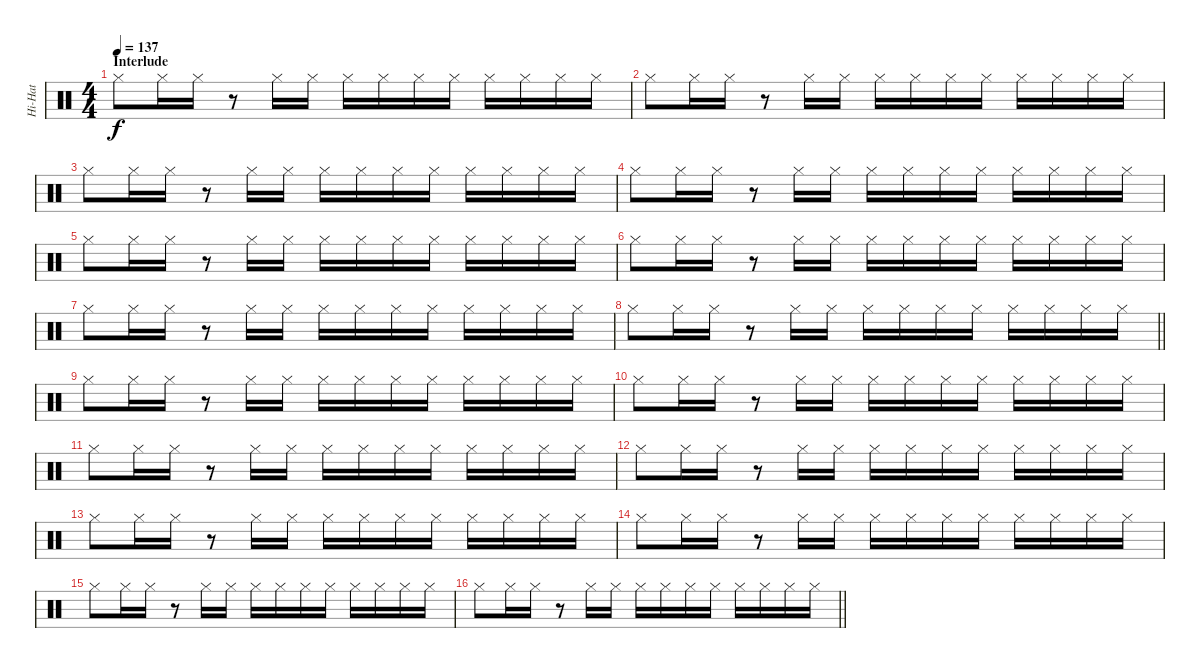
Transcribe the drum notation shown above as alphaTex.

\track ("Hi-Hat" "Hi-Hat") {instrument percussion}
\staff {score}
\articulation defaults
\ts (4 4)
\section ("" "Interlude")
\tempo 137
\clef neutral
\ks c "Hi-Hat (closed)".8{dy f} "Hi-Hat (closed)".16 "Hi-Hat (closed)".16
r.8 "Hi-Hat (closed)".16 "Hi-Hat (closed)".16 "Hi-Hat (closed)".16 "Hi-Hat (closed)".16 "Hi-Hat (closed)".16 "Hi-Hat (closed)".16 "Hi-Hat (closed)".16 "Hi-Hat (closed)".16 "Hi-Hat (closed)".16 "Hi-Hat (closed)".16 |
"Hi-Hat (closed)".8 "Hi-Hat (closed)".16 "Hi-Hat (closed)".16 r.8 "Hi-Hat (closed)".16 "Hi-Hat (closed)".16 "Hi-Hat (closed)".16 "Hi-Hat (closed)".16 "Hi-Hat (closed)".16 "Hi-Hat (closed)".16 "Hi-Hat (closed)".16 "Hi-Hat (closed)".16 "Hi-Hat (closed)".16 "Hi-Hat (closed)".16 |
"Hi-Hat (closed)".8 "Hi-Hat (closed)".16 "Hi-Hat (closed)".16 r.8 "Hi-Hat (closed)".16 "Hi-Hat (closed)".16 "Hi-Hat (closed)".16 "Hi-Hat (closed)".16 "Hi-Hat (closed)".16 "Hi-Hat (closed)".16 "Hi-Hat (closed)".16 "Hi-Hat (closed)".16 "Hi-Hat (closed)".16 "Hi-Hat (closed)".16 |
"Hi-Hat (closed)".8 "Hi-Hat (closed)".16 "Hi-Hat (closed)".16 r.8 "Hi-Hat (closed)".16 "Hi-Hat (closed)".16 "Hi-Hat (closed)".16 "Hi-Hat (closed)".16 "Hi-Hat (closed)".16 "Hi-Hat (closed)".16 "Hi-Hat (closed)".16 "Hi-Hat (closed)".16 "Hi-Hat (closed)".16 "Hi-Hat (closed)".16 |
"Hi-Hat (closed)".8 "Hi-Hat (closed)".16 "Hi-Hat (closed)".16 r.8 "Hi-Hat (closed)".16 "Hi-Hat (closed)".16 "Hi-Hat (closed)".16 "Hi-Hat (closed)".16 "Hi-Hat (closed)".16 "Hi-Hat (closed)".16 "Hi-Hat (closed)".16 "Hi-Hat (closed)".16 "Hi-Hat (closed)".16 "Hi-Hat (closed)".16 |
"Hi-Hat (closed)".8 "Hi-Hat (closed)".16 "Hi-Hat (closed)".16 r.8 "Hi-Hat (closed)".16 "Hi-Hat (closed)".16 "Hi-Hat (closed)".16 "Hi-Hat (closed)".16 "Hi-Hat (closed)".16 "Hi-Hat (closed)".16 "Hi-Hat (closed)".16 "Hi-Hat (closed)".16 "Hi-Hat (closed)".16 "Hi-Hat (closed)".16 |
"Hi-Hat (closed)".8 "Hi-Hat (closed)".16 "Hi-Hat (closed)".16 r.8 "Hi-Hat (closed)".16 "Hi-Hat (closed)".16 "Hi-Hat (closed)".16 "Hi-Hat (closed)".16 "Hi-Hat (closed)".16 "Hi-Hat (closed)".16 "Hi-Hat (closed)".16 "Hi-Hat (closed)".16 "Hi-Hat (closed)".16 "Hi-Hat (closed)".16 |
\barLineRight lightlight "Hi-Hat (closed)".8 "Hi-Hat (closed)".16 "Hi-Hat (closed)".16
r.8 "Hi-Hat (closed)".16 "Hi-Hat (closed)".16 "Hi-Hat (closed)".16 "Hi-Hat (closed)".16 "Hi-Hat (closed)".16 "Hi-Hat (closed)".16 "Hi-Hat (closed)".16 "Hi-Hat (closed)".16 "Hi-Hat (closed)".16 "Hi-Hat (closed)".16 |
\section ("" "")
"Hi-Hat (closed)".8 "Hi-Hat (closed)".16 "Hi-Hat (closed)".16 r.8 "Hi-Hat (closed)".16 "Hi-Hat (closed)".16 "Hi-Hat (closed)".16 "Hi-Hat (closed)".16 "Hi-Hat (closed)".16 "Hi-Hat (closed)".16 "Hi-Hat (closed)".16 "Hi-Hat (closed)".16 "Hi-Hat (closed)".16 "Hi-Hat (closed)".16 |
"Hi-Hat (closed)".8 "Hi-Hat (closed)".16 "Hi-Hat (closed)".16 r.8 "Hi-Hat (closed)".16 "Hi-Hat (closed)".16 "Hi-Hat (closed)".16 "Hi-Hat (closed)".16 "Hi-Hat (closed)".16 "Hi-Hat (closed)".16 "Hi-Hat (closed)".16 "Hi-Hat (closed)".16 "Hi-Hat (closed)".16 "Hi-Hat (closed)".16 |
"Hi-Hat (closed)".8 "Hi-Hat (closed)".16 "Hi-Hat (closed)".16 r.8 "Hi-Hat (closed)".16 "Hi-Hat (closed)".16 "Hi-Hat (closed)".16 "Hi-Hat (closed)".16 "Hi-Hat (closed)".16 "Hi-Hat (closed)".16 "Hi-Hat (closed)".16 "Hi-Hat (closed)".16 "Hi-Hat (closed)".16 "Hi-Hat (closed)".16 |
"Hi-Hat (closed)".8 "Hi-Hat (closed)".16 "Hi-Hat (closed)".16 r.8 "Hi-Hat (closed)".16 "Hi-Hat (closed)".16 "Hi-Hat (closed)".16 "Hi-Hat (closed)".16 "Hi-Hat (closed)".16 "Hi-Hat (closed)".16 "Hi-Hat (closed)".16 "Hi-Hat (closed)".16 "Hi-Hat (closed)".16 "Hi-Hat (closed)".16 |
"Hi-Hat (closed)".8 "Hi-Hat (closed)".16 "Hi-Hat (closed)".16 r.8 "Hi-Hat (closed)".16 "Hi-Hat (closed)".16 "Hi-Hat (closed)".16 "Hi-Hat (closed)".16 "Hi-Hat (closed)".16 "Hi-Hat (closed)".16 "Hi-Hat (closed)".16 "Hi-Hat (closed)".16 "Hi-Hat (closed)".16 "Hi-Hat (closed)".16 |
"Hi-Hat (closed)".8 "Hi-Hat (closed)".16 "Hi-Hat (closed)".16 r.8 "Hi-Hat (closed)".16 "Hi-Hat (closed)".16 "Hi-Hat (closed)".16 "Hi-Hat (closed)".16 "Hi-Hat (closed)".16 "Hi-Hat (closed)".16 "Hi-Hat (closed)".16 "Hi-Hat (closed)".16 "Hi-Hat (closed)".16 "Hi-Hat (closed)".16 |
"Hi-Hat (closed)".8 "Hi-Hat (closed)".16 "Hi-Hat (closed)".16 r.8 "Hi-Hat (closed)".16 "Hi-Hat (closed)".16 "Hi-Hat (closed)".16 "Hi-Hat (closed)".16 "Hi-Hat (closed)".16 "Hi-Hat (closed)".16 "Hi-Hat (closed)".16 "Hi-Hat (closed)".16 "Hi-Hat (closed)".16 "Hi-Hat (closed)".16 |
\barLineRight lightlight "Hi-Hat (closed)".8 "Hi-Hat (closed)".16 "Hi-Hat (closed)".16
r.8 "Hi-Hat (closed)".16 "Hi-Hat (closed)".16 "Hi-Hat (closed)".16 "Hi-Hat (closed)".16 "Hi-Hat (closed)".16 "Hi-Hat (closed)".16 "Hi-Hat (closed)".16 "Hi-Hat (closed)".16 "Hi-Hat (closed)".16 "Hi-Hat (closed)".16
